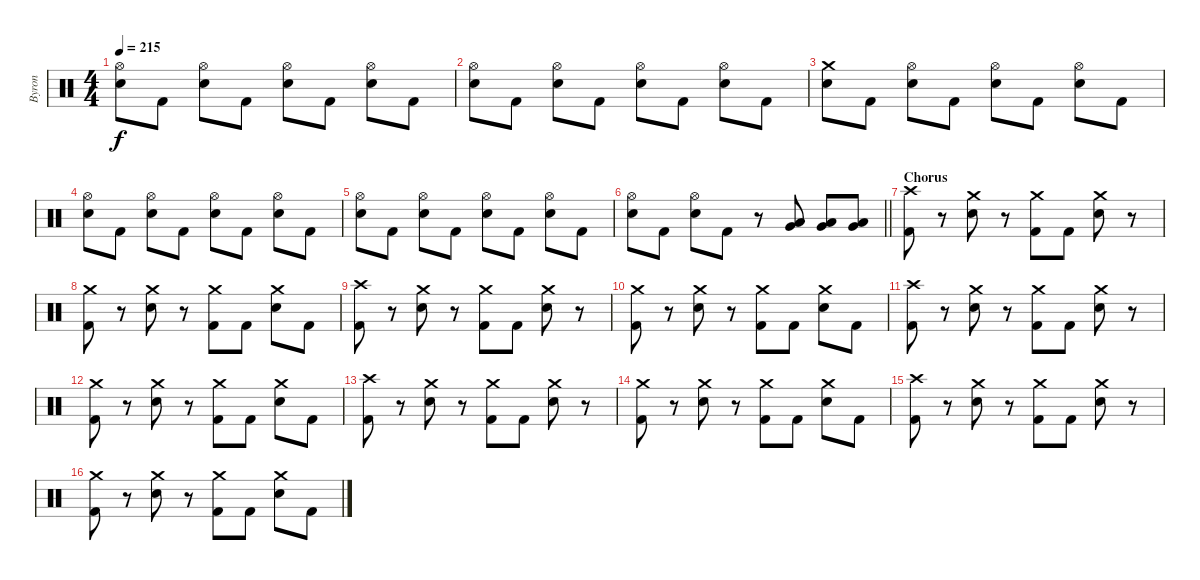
\track ("Byron" "Byron") {instrument percussion}
\staff {score}
\articulation defaults
\ts (4 4)
\tempo 215
\clef neutral
\ks c
("Hi-Hat (open)" "Electric Snare (hit)").8{dy f} "Kick (hit) 2".8 ("Hi-Hat (open)" "Electric Snare (hit)").8 "Kick (hit) 2".8 ("Hi-Hat (open)" "Electric Snare (hit)").8 "Kick (hit) 2".8 ("Hi-Hat (open)" "Electric Snare (hit)").8 "Kick (hit) 2".8 |
("Hi-Hat (open)" "Electric Snare (hit)").8 "Kick (hit) 2".8 ("Hi-Hat (open)" "Electric Snare (hit)").8 "Kick (hit) 2".8 ("Hi-Hat (open)" "Electric Snare (hit)").8 "Kick (hit) 2".8 ("Hi-Hat (open)" "Electric Snare (hit)").8 "Kick (hit) 2".8 |
("Crash medium (hit)" "Electric Snare (hit)").8 "Kick (hit) 2".8 ("Hi-Hat (open)" "Electric Snare (hit)").8 "Kick (hit) 2".8 ("Hi-Hat (open)" "Electric Snare (hit)").8 "Kick (hit) 2".8 ("Hi-Hat (open)" "Electric Snare (hit)").8 "Kick (hit) 2".8 |
("Hi-Hat (open)" "Electric Snare (hit)").8 "Kick (hit) 2".8 ("Hi-Hat (open)" "Electric Snare (hit)").8 "Kick (hit) 2".8 ("Hi-Hat (open)" "Electric Snare (hit)").8 "Kick (hit) 2".8 ("Hi-Hat (open)" "Electric Snare (hit)").8 "Kick (hit) 2".8 |
("Hi-Hat (open)" "Electric Snare (hit)").8 "Kick (hit) 2".8 ("Hi-Hat (open)" "Electric Snare (hit)").8 "Kick (hit) 2".8 ("Hi-Hat (open)" "Electric Snare (hit)").8 "Kick (hit) 2".8 ("Hi-Hat (open)" "Electric Snare (hit)").8 "Kick (hit) 2".8 |
\barLineRight lightlight
("Hi-Hat (open)" "Electric Snare (hit)").8 "Kick (hit) 2".8 ("Hi-Hat (open)" "Electric Snare (hit)").8 "Kick (hit) 2".8 r.8 ("Low Tom (hit)" "Very Low Tom (hit)").8 ("Low Tom (hit)" "Very Low Tom (hit)").8 ("Low Tom (hit)" "Very Low Tom (hit)").8 |
\section ("" "Chorus")
("Crash high (hit)" "Kick (hit) 2").8 r.8 ("Crash medium (hit)" "Electric Snare (hit)").8 r.8 ("Crash medium (hit)" "Kick (hit) 2").8 "Kick (hit) 2".8 ("Crash medium (hit)" "Electric Snare (hit)").8 r.8 |
("Crash medium (hit)" "Kick (hit) 2").8 r.8 ("Crash medium (hit)" "Electric Snare (hit)").8 r.8 ("Crash medium (hit)" "Kick (hit) 2").8 "Kick (hit) 2".8 ("Crash medium (hit)" "Electric Snare (hit)").8 "Kick (hit) 2".8 |
("Crash high (hit)" "Kick (hit) 2").8 r.8 ("Crash medium (hit)" "Electric Snare (hit)").8 r.8 ("Crash medium (hit)" "Kick (hit) 2").8 "Kick (hit) 2".8 ("Crash medium (hit)" "Electric Snare (hit)").8 r.8 |
("Crash medium (hit)" "Kick (hit) 2").8 r.8 ("Crash medium (hit)" "Electric Snare (hit)").8 r.8 ("Crash medium (hit)" "Kick (hit) 2").8 "Kick (hit) 2".8 ("Crash medium (hit)" "Electric Snare (hit)").8 "Kick (hit) 2".8 |
("Crash high (hit)" "Kick (hit) 2").8 r.8 ("Crash medium (hit)" "Electric Snare (hit)").8 r.8 ("Crash medium (hit)" "Kick (hit) 2").8 "Kick (hit) 2".8 ("Crash medium (hit)" "Electric Snare (hit)").8 r.8 |
("Crash medium (hit)" "Kick (hit) 2").8 r.8 ("Crash medium (hit)" "Electric Snare (hit)").8 r.8 ("Crash medium (hit)" "Kick (hit) 2").8 "Kick (hit) 2".8 ("Crash medium (hit)" "Electric Snare (hit)").8 "Kick (hit) 2".8 |
("Crash high (hit)" "Kick (hit) 2").8 r.8 ("Crash medium (hit)" "Electric Snare (hit)").8 r.8 ("Crash medium (hit)" "Kick (hit) 2").8 "Kick (hit) 2".8 ("Crash medium (hit)" "Electric Snare (hit)").8 r.8 |
("Crash medium (hit)" "Kick (hit) 2").8 r.8 ("Crash medium (hit)" "Electric Snare (hit)").8 r.8 ("Crash medium (hit)" "Kick (hit) 2").8 "Kick (hit) 2".8 ("Crash medium (hit)" "Electric Snare (hit)").8 "Kick (hit) 2".8 |
("Crash high (hit)" "Kick (hit) 2").8 r.8 ("Crash medium (hit)" "Electric Snare (hit)").8 r.8 ("Crash medium (hit)" "Kick (hit) 2").8 "Kick (hit) 2".8 ("Crash medium (hit)" "Electric Snare (hit)").8 r.8 |
("Crash medium (hit)" "Kick (hit) 2").8 r.8 ("Crash medium (hit)" "Electric Snare (hit)").8 r.8 ("Crash medium (hit)" "Kick (hit) 2").8 "Kick (hit) 2".8 ("Crash medium (hit)" "Electric Snare (hit)").8 "Kick (hit) 2".8
